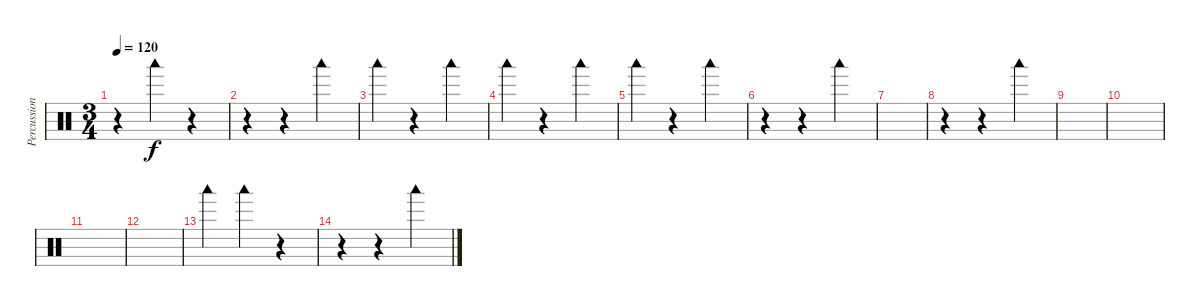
\track ("Percussion" "Percussion") {instrument percussion}
\staff {score}
\articulation defaults
\ts (3 4)
\tempo 120
\clef neutral
\ks c
r.4{dy f} "Woodblock low (hit)".4 r.4 |
r.4 r.4 "Woodblock low (hit)".4 |
"Woodblock low (hit)".4 r.4 "Woodblock low (hit)".4 |
"Woodblock low (hit)".4 r.4 "Woodblock low (hit)".4 |
"Woodblock low (hit)".4 r.4 "Woodblock low (hit)".4 |
r.4 r.4 "Woodblock low (hit)".4 |
|
r.4 r.4 "Woodblock low (hit)".4 |
|
|
|
|
"Woodblock low (hit)".4 "Woodblock low (hit)".4 r.4 |
r.4 r.4 "Woodblock low (hit)".4
